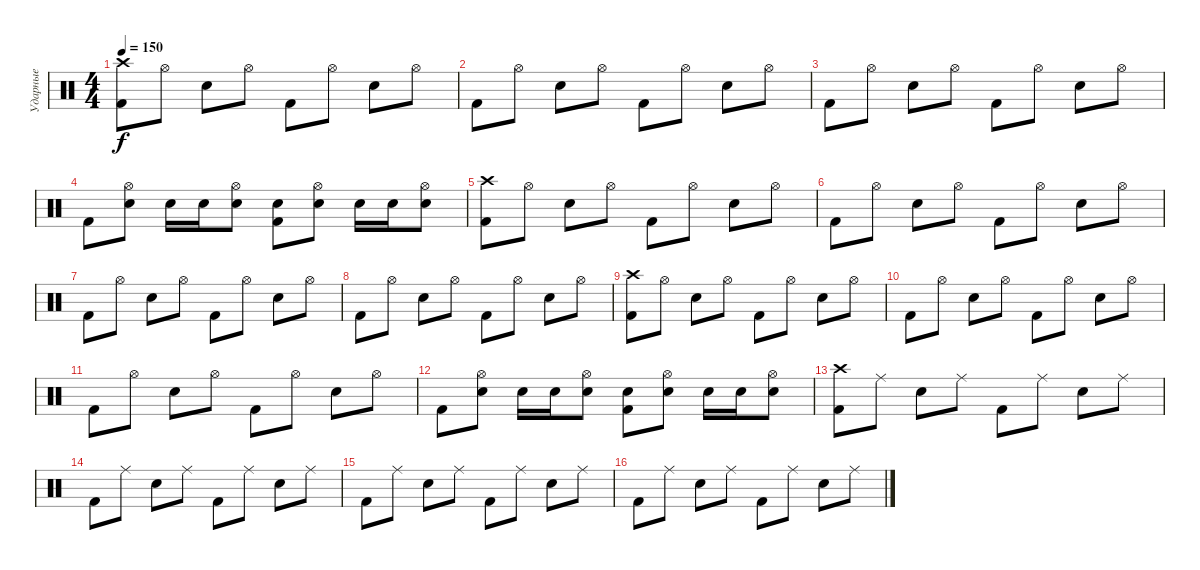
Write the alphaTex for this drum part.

\track ("Ударные" "Ударные") {instrument percussion}
\staff {score}
\articulation defaults
\ts (4 4)
\tempo 150
\clef neutral
\ks c
("Crash high (hit)" "Kick (hit) 2").8{dy f} "Hi-Hat (open)".8 "Electric Snare (hit)".8 "Hi-Hat (open)".8 "Kick (hit) 2".8 "Hi-Hat (open)".8 "Electric Snare (hit)".8 "Hi-Hat (open)".8 |
"Kick (hit) 2".8 "Hi-Hat (open)".8 "Electric Snare (hit)".8 "Hi-Hat (open)".8 "Kick (hit) 2".8 "Hi-Hat (open)".8 "Electric Snare (hit)".8 "Hi-Hat (open)".8 |
"Kick (hit) 2".8 "Hi-Hat (open)".8 "Electric Snare (hit)".8 "Hi-Hat (open)".8 "Kick (hit) 2".8 "Hi-Hat (open)".8 "Electric Snare (hit)".8 "Hi-Hat (open)".8 |
"Kick (hit) 2".8 ("Hi-Hat (open)" "Electric Snare (hit)").8 "Electric Snare (hit)".16 "Electric Snare (hit)".16 ("Hi-Hat (open)" "Electric Snare (hit)").8 ("Electric Snare (hit)" "Kick (hit) 2").8 ("Hi-Hat (open)" "Electric Snare (hit)").8 "Electric Snare (hit)".16 "Electric Snare (hit)".16 ("Hi-Hat (open)" "Electric Snare (hit)").8 |
("Crash high (hit)" "Kick (hit) 2").8 "Hi-Hat (open)".8 "Electric Snare (hit)".8 "Hi-Hat (open)".8 "Kick (hit) 2".8 "Hi-Hat (open)".8 "Electric Snare (hit)".8 "Hi-Hat (open)".8 |
"Kick (hit) 2".8 "Hi-Hat (open)".8 "Electric Snare (hit)".8 "Hi-Hat (open)".8 "Kick (hit) 2".8 "Hi-Hat (open)".8 "Electric Snare (hit)".8 "Hi-Hat (open)".8 |
"Kick (hit) 2".8 "Hi-Hat (open)".8 "Electric Snare (hit)".8 "Hi-Hat (open)".8 "Kick (hit) 2".8 "Hi-Hat (open)".8 "Electric Snare (hit)".8 "Hi-Hat (open)".8 |
"Kick (hit) 2".8 "Hi-Hat (open)".8 "Electric Snare (hit)".8 "Hi-Hat (open)".8 "Kick (hit) 2".8 "Hi-Hat (open)".8 "Electric Snare (hit)".8 "Hi-Hat (open)".8 |
("Crash high (hit)" "Kick (hit) 2").8 "Hi-Hat (open)".8 "Electric Snare (hit)".8 "Hi-Hat (open)".8 "Kick (hit) 2".8 "Hi-Hat (open)".8 "Electric Snare (hit)".8 "Hi-Hat (open)".8 |
"Kick (hit) 2".8 "Hi-Hat (open)".8 "Electric Snare (hit)".8 "Hi-Hat (open)".8 "Kick (hit) 2".8 "Hi-Hat (open)".8 "Electric Snare (hit)".8 "Hi-Hat (open)".8 |
"Kick (hit) 2".8 "Hi-Hat (open)".8 "Electric Snare (hit)".8 "Hi-Hat (open)".8 "Kick (hit) 2".8 "Hi-Hat (open)".8 "Electric Snare (hit)".8 "Hi-Hat (open)".8 |
"Kick (hit) 2".8 ("Hi-Hat (open)" "Electric Snare (hit)").8 "Electric Snare (hit)".16 "Electric Snare (hit)".16 ("Hi-Hat (open)" "Electric Snare (hit)").8 ("Electric Snare (hit)" "Kick (hit) 2").8 ("Hi-Hat (open)" "Electric Snare (hit)").8 "Electric Snare (hit)".16 "Electric Snare (hit)".16 ("Hi-Hat (open)" "Electric Snare (hit)").8 |
("Crash high (hit)" "Kick (hit) 2").8 "Ride (middle)".8 "Electric Snare (hit)".8 "Ride (middle)".8 "Kick (hit) 2".8 "Ride (middle)".8 "Electric Snare (hit)".8 "Ride (middle)".8 |
"Kick (hit) 2".8 "Ride (middle)".8 "Electric Snare (hit)".8 "Ride (middle)".8 "Kick (hit) 2".8 "Ride (middle)".8 "Electric Snare (hit)".8 "Ride (middle)".8 |
"Kick (hit) 2".8 "Ride (middle)".8 "Electric Snare (hit)".8 "Ride (middle)".8 "Kick (hit) 2".8 "Ride (middle)".8 "Electric Snare (hit)".8 "Ride (middle)".8 |
"Kick (hit) 2".8 "Ride (middle)".8 "Electric Snare (hit)".8 "Ride (middle)".8 "Kick (hit) 2".8 "Ride (middle)".8 "Electric Snare (hit)".8 "Ride (middle)".8
